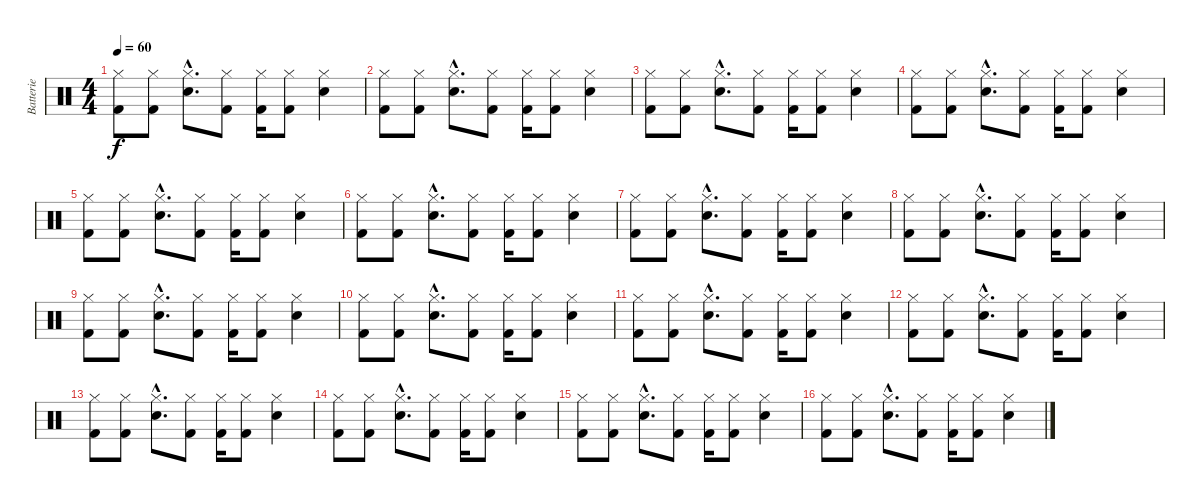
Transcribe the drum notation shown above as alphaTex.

\track ("Batterie" "Batterie") {instrument percussion}
\staff {score}
\articulation defaults
\ts (4 4)
\tempo 60
\clef neutral
\ks c
("Hi-Hat (closed)" "Kick (hit) 2").8{dy f} ("Hi-Hat (closed)" "Kick (hit) 2").8 ("Hi-Hat (closed)"{hac} "Snare (hit) 2"{hac}).8{d} ("Hi-Hat (closed)" "Kick (hit) 2").8 ("Hi-Hat (closed)" "Kick (hit) 2").16 ("Hi-Hat (closed)" "Kick (hit) 2").8 ("Hi-Hat (closed)" "Snare (hit) 2").4 |
("Hi-Hat (closed)" "Kick (hit) 2").8 ("Hi-Hat (closed)" "Kick (hit) 2").8 ("Hi-Hat (closed)"{hac} "Snare (hit) 2"{hac}).8{d} ("Hi-Hat (closed)" "Kick (hit) 2").8 ("Hi-Hat (closed)" "Kick (hit) 2").16 ("Hi-Hat (closed)" "Kick (hit) 2").8 ("Hi-Hat (closed)" "Snare (hit) 2").4 |
("Hi-Hat (closed)" "Kick (hit) 2").8 ("Hi-Hat (closed)" "Kick (hit) 2").8 ("Hi-Hat (closed)"{hac} "Snare (hit) 2"{hac}).8{d} ("Hi-Hat (closed)" "Kick (hit) 2").8 ("Hi-Hat (closed)" "Kick (hit) 2").16 ("Hi-Hat (closed)" "Kick (hit) 2").8 ("Hi-Hat (closed)" "Snare (hit) 2").4 |
("Hi-Hat (closed)" "Kick (hit) 2").8 ("Hi-Hat (closed)" "Kick (hit) 2").8 ("Hi-Hat (closed)"{hac} "Snare (hit) 2"{hac}).8{d} ("Hi-Hat (closed)" "Kick (hit) 2").8 ("Hi-Hat (closed)" "Kick (hit) 2").16 ("Hi-Hat (closed)" "Kick (hit) 2").8 ("Hi-Hat (closed)" "Snare (hit) 2").4 |
("Hi-Hat (closed)" "Kick (hit) 2").8 ("Hi-Hat (closed)" "Kick (hit) 2").8 ("Hi-Hat (closed)"{hac} "Snare (hit) 2"{hac}).8{d} ("Hi-Hat (closed)" "Kick (hit) 2").8 ("Hi-Hat (closed)" "Kick (hit) 2").16 ("Hi-Hat (closed)" "Kick (hit) 2").8 ("Hi-Hat (closed)" "Snare (hit) 2").4 |
("Hi-Hat (closed)" "Kick (hit) 2").8 ("Hi-Hat (closed)" "Kick (hit) 2").8 ("Hi-Hat (closed)"{hac} "Snare (hit) 2"{hac}).8{d} ("Hi-Hat (closed)" "Kick (hit) 2").8 ("Hi-Hat (closed)" "Kick (hit) 2").16 ("Hi-Hat (closed)" "Kick (hit) 2").8 ("Hi-Hat (closed)" "Snare (hit) 2").4 |
("Hi-Hat (closed)" "Kick (hit) 2").8 ("Hi-Hat (closed)" "Kick (hit) 2").8 ("Hi-Hat (closed)"{hac} "Snare (hit) 2"{hac}).8{d} ("Hi-Hat (closed)" "Kick (hit) 2").8 ("Hi-Hat (closed)" "Kick (hit) 2").16 ("Hi-Hat (closed)" "Kick (hit) 2").8 ("Hi-Hat (closed)" "Snare (hit) 2").4 |
("Hi-Hat (closed)" "Kick (hit) 2").8 ("Hi-Hat (closed)" "Kick (hit) 2").8 ("Hi-Hat (closed)"{hac} "Snare (hit) 2"{hac}).8{d} ("Hi-Hat (closed)" "Kick (hit) 2").8 ("Hi-Hat (closed)" "Kick (hit) 2").16 ("Hi-Hat (closed)" "Kick (hit) 2").8 ("Hi-Hat (closed)" "Snare (hit) 2").4 |
("Hi-Hat (closed)" "Kick (hit) 2").8 ("Hi-Hat (closed)" "Kick (hit) 2").8 ("Hi-Hat (closed)"{hac} "Snare (hit) 2"{hac}).8{d} ("Hi-Hat (closed)" "Kick (hit) 2").8 ("Hi-Hat (closed)" "Kick (hit) 2").16 ("Hi-Hat (closed)" "Kick (hit) 2").8 ("Hi-Hat (closed)" "Snare (hit) 2").4 |
("Hi-Hat (closed)" "Kick (hit) 2").8 ("Hi-Hat (closed)" "Kick (hit) 2").8 ("Hi-Hat (closed)"{hac} "Snare (hit) 2"{hac}).8{d} ("Hi-Hat (closed)" "Kick (hit) 2").8 ("Hi-Hat (closed)" "Kick (hit) 2").16 ("Hi-Hat (closed)" "Kick (hit) 2").8 ("Hi-Hat (closed)" "Snare (hit) 2").4 |
("Hi-Hat (closed)" "Kick (hit) 2").8 ("Hi-Hat (closed)" "Kick (hit) 2").8 ("Hi-Hat (closed)"{hac} "Snare (hit) 2"{hac}).8{d} ("Hi-Hat (closed)" "Kick (hit) 2").8 ("Hi-Hat (closed)" "Kick (hit) 2").16 ("Hi-Hat (closed)" "Kick (hit) 2").8 ("Hi-Hat (closed)" "Snare (hit) 2").4 |
("Hi-Hat (closed)" "Kick (hit) 2").8 ("Hi-Hat (closed)" "Kick (hit) 2").8 ("Hi-Hat (closed)"{hac} "Snare (hit) 2"{hac}).8{d} ("Hi-Hat (closed)" "Kick (hit) 2").8 ("Hi-Hat (closed)" "Kick (hit) 2").16 ("Hi-Hat (closed)" "Kick (hit) 2").8 ("Hi-Hat (closed)" "Snare (hit) 2").4 |
("Hi-Hat (closed)" "Kick (hit) 2").8 ("Hi-Hat (closed)" "Kick (hit) 2").8 ("Hi-Hat (closed)"{hac} "Snare (hit) 2"{hac}).8{d} ("Hi-Hat (closed)" "Kick (hit) 2").8 ("Hi-Hat (closed)" "Kick (hit) 2").16 ("Hi-Hat (closed)" "Kick (hit) 2").8 ("Hi-Hat (closed)" "Snare (hit) 2").4 |
("Hi-Hat (closed)" "Kick (hit) 2").8 ("Hi-Hat (closed)" "Kick (hit) 2").8 ("Hi-Hat (closed)"{hac} "Snare (hit) 2"{hac}).8{d} ("Hi-Hat (closed)" "Kick (hit) 2").8 ("Hi-Hat (closed)" "Kick (hit) 2").16 ("Hi-Hat (closed)" "Kick (hit) 2").8 ("Hi-Hat (closed)" "Snare (hit) 2").4 |
("Hi-Hat (closed)" "Kick (hit) 2").8 ("Hi-Hat (closed)" "Kick (hit) 2").8 ("Hi-Hat (closed)"{hac} "Snare (hit) 2"{hac}).8{d} ("Hi-Hat (closed)" "Kick (hit) 2").8 ("Hi-Hat (closed)" "Kick (hit) 2").16 ("Hi-Hat (closed)" "Kick (hit) 2").8 ("Hi-Hat (closed)" "Snare (hit) 2").4 |
("Hi-Hat (closed)" "Kick (hit) 2").8 ("Hi-Hat (closed)" "Kick (hit) 2").8 ("Hi-Hat (closed)"{hac} "Snare (hit) 2"{hac}).8{d} ("Hi-Hat (closed)" "Kick (hit) 2").8 ("Hi-Hat (closed)" "Kick (hit) 2").16 ("Hi-Hat (closed)" "Kick (hit) 2").8 ("Hi-Hat (closed)" "Snare (hit) 2").4
